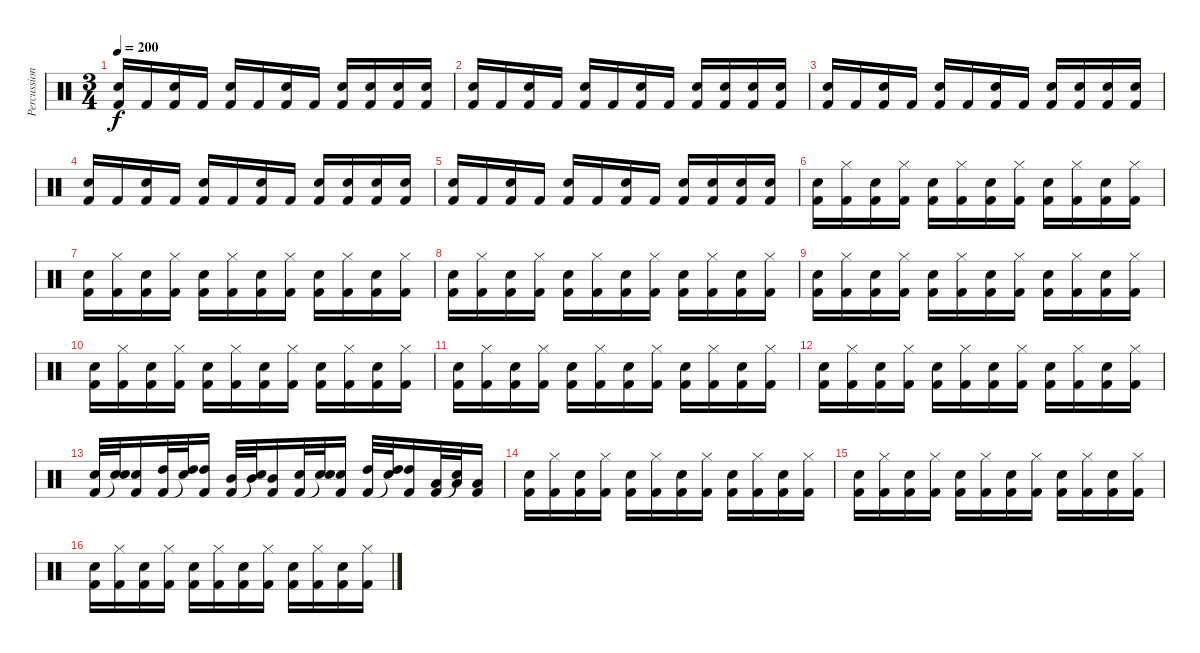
\track ("Percussion" "Percussion") {instrument percussion}
\staff {score}
\articulation defaults
\ts (3 4)
\tempo 200
\clef neutral
\ks c
("Snare (hit) 2" "Kick (hit) 2").16{dy f} "Kick (hit) 2".16 ("Snare (hit) 2" "Kick (hit) 2").16 "Kick (hit) 2".16 ("Snare (hit) 2" "Kick (hit) 2").16 "Kick (hit) 2".16 ("Snare (hit) 2" "Kick (hit) 2").16 "Kick (hit) 2".16 ("Snare (hit) 2" "Kick (hit) 2").16 ("Snare (hit) 2" "Kick (hit) 2").16 ("Snare (hit) 2" "Kick (hit) 2").16 ("Snare (hit) 2" "Kick (hit) 2").16 |
("Snare (hit) 2" "Kick (hit) 2").16 "Kick (hit) 2".16 ("Snare (hit) 2" "Kick (hit) 2").16 "Kick (hit) 2".16 ("Snare (hit) 2" "Kick (hit) 2").16 "Kick (hit) 2".16 ("Snare (hit) 2" "Kick (hit) 2").16 "Kick (hit) 2".16 ("Snare (hit) 2" "Kick (hit) 2").16 ("Snare (hit) 2" "Kick (hit) 2").16 ("Snare (hit) 2" "Kick (hit) 2").16 ("Snare (hit) 2" "Kick (hit) 2").16 |
("Snare (hit) 2" "Kick (hit) 2").16 "Kick (hit) 2".16 ("Snare (hit) 2" "Kick (hit) 2").16 "Kick (hit) 2".16 ("Snare (hit) 2" "Kick (hit) 2").16 "Kick (hit) 2".16 ("Snare (hit) 2" "Kick (hit) 2").16 "Kick (hit) 2".16 ("Snare (hit) 2" "Kick (hit) 2").16 ("Snare (hit) 2" "Kick (hit) 2").16 ("Snare (hit) 2" "Kick (hit) 2").16 ("Snare (hit) 2" "Kick (hit) 2").16 |
("Snare (hit) 2" "Kick (hit) 2").16 "Kick (hit) 2".16 ("Snare (hit) 2" "Kick (hit) 2").16 "Kick (hit) 2".16 ("Snare (hit) 2" "Kick (hit) 2").16 "Kick (hit) 2".16 ("Snare (hit) 2" "Kick (hit) 2").16 "Kick (hit) 2".16 ("Snare (hit) 2" "Kick (hit) 2").16 ("Snare (hit) 2" "Kick (hit) 2").16 ("Snare (hit) 2" "Kick (hit) 2").16 ("Snare (hit) 2" "Kick (hit) 2").16 |
("Snare (hit) 2" "Kick (hit) 2").16 "Kick (hit) 2".16 ("Snare (hit) 2" "Kick (hit) 2").16 "Kick (hit) 2".16 ("Snare (hit) 2" "Kick (hit) 2").16 "Kick (hit) 2".16 ("Snare (hit) 2" "Kick (hit) 2").16 "Kick (hit) 2".16 ("Snare (hit) 2" "Kick (hit) 2").16 ("Snare (hit) 2" "Kick (hit) 2").16 ("Snare (hit) 2" "Kick (hit) 2").16 ("Snare (hit) 2" "Kick (hit) 2").16 |
("Snare (hit) 2" "Kick (hit) 2").16 ("Hi-Hat (closed)" "Kick (hit) 2").16 ("Snare (hit) 2" "Kick (hit) 2").16 ("Hi-Hat (closed)" "Kick (hit) 2").16 ("Snare (hit) 2" "Kick (hit) 2").16 ("Hi-Hat (closed)" "Kick (hit) 2").16 ("Snare (hit) 2" "Kick (hit) 2").16 ("Hi-Hat (closed)" "Kick (hit) 2").16 ("Snare (hit) 2" "Kick (hit) 2").16 ("Hi-Hat (closed)" "Kick (hit) 2").16 ("Snare (hit) 2" "Kick (hit) 2").16 ("Hi-Hat (closed)" "Kick (hit) 2").16 |
("Snare (hit) 2" "Kick (hit) 2").16 ("Hi-Hat (closed)" "Kick (hit) 2").16 ("Snare (hit) 2" "Kick (hit) 2").16 ("Hi-Hat (closed)" "Kick (hit) 2").16 ("Snare (hit) 2" "Kick (hit) 2").16 ("Hi-Hat (closed)" "Kick (hit) 2").16 ("Snare (hit) 2" "Kick (hit) 2").16 ("Hi-Hat (closed)" "Kick (hit) 2").16 ("Snare (hit) 2" "Kick (hit) 2").16 ("Hi-Hat (closed)" "Kick (hit) 2").16 ("Snare (hit) 2" "Kick (hit) 2").16 ("Hi-Hat (closed)" "Kick (hit) 2").16 |
("Snare (hit) 2" "Kick (hit) 2").16 ("Hi-Hat (closed)" "Kick (hit) 2").16 ("Snare (hit) 2" "Kick (hit) 2").16 ("Hi-Hat (closed)" "Kick (hit) 2").16 ("Snare (hit) 2" "Kick (hit) 2").16 ("Hi-Hat (closed)" "Kick (hit) 2").16 ("Snare (hit) 2" "Kick (hit) 2").16 ("Hi-Hat (closed)" "Kick (hit) 2").16 ("Snare (hit) 2" "Kick (hit) 2").16 ("Hi-Hat (closed)" "Kick (hit) 2").16 ("Snare (hit) 2" "Kick (hit) 2").16 ("Hi-Hat (closed)" "Kick (hit) 2").16 |
("Snare (hit) 2" "Kick (hit) 2").16 ("Hi-Hat (closed)" "Kick (hit) 2").16 ("Snare (hit) 2" "Kick (hit) 2").16 ("Hi-Hat (closed)" "Kick (hit) 2").16 ("Snare (hit) 2" "Kick (hit) 2").16 ("Hi-Hat (closed)" "Kick (hit) 2").16 ("Snare (hit) 2" "Kick (hit) 2").16 ("Hi-Hat (closed)" "Kick (hit) 2").16 ("Snare (hit) 2" "Kick (hit) 2").16 ("Hi-Hat (closed)" "Kick (hit) 2").16 ("Snare (hit) 2" "Kick (hit) 2").16 ("Hi-Hat (closed)" "Kick (hit) 2").16 |
("Snare (hit) 2" "Kick (hit) 2").16 ("Hi-Hat (closed)" "Kick (hit) 2").16 ("Snare (hit) 2" "Kick (hit) 2").16 ("Hi-Hat (closed)" "Kick (hit) 2").16 ("Snare (hit) 2" "Kick (hit) 2").16 ("Hi-Hat (closed)" "Kick (hit) 2").16 ("Snare (hit) 2" "Kick (hit) 2").16 ("Hi-Hat (closed)" "Kick (hit) 2").16 ("Snare (hit) 2" "Kick (hit) 2").16 ("Hi-Hat (closed)" "Kick (hit) 2").16 ("Snare (hit) 2" "Kick (hit) 2").16 ("Hi-Hat (closed)" "Kick (hit) 2").16 |
("Snare (hit) 2" "Kick (hit) 2").16 ("Hi-Hat (closed)" "Kick (hit) 2").16 ("Snare (hit) 2" "Kick (hit) 2").16 ("Hi-Hat (closed)" "Kick (hit) 2").16 ("Snare (hit) 2" "Kick (hit) 2").16 ("Hi-Hat (closed)" "Kick (hit) 2").16 ("Snare (hit) 2" "Kick (hit) 2").16 ("Hi-Hat (closed)" "Kick (hit) 2").16 ("Snare (hit) 2" "Kick (hit) 2").16 ("Hi-Hat (closed)" "Kick (hit) 2").16 ("Snare (hit) 2" "Kick (hit) 2").16 ("Hi-Hat (closed)" "Kick (hit) 2").16 |
("Snare (hit) 2" "Kick (hit) 2").16 ("Hi-Hat (closed)" "Kick (hit) 2").16 ("Snare (hit) 2" "Kick (hit) 2").16 ("Hi-Hat (closed)" "Kick (hit) 2").16 ("Snare (hit) 2" "Kick (hit) 2").16 ("Hi-Hat (closed)" "Kick (hit) 2").16 ("Snare (hit) 2" "Kick (hit) 2").16 ("Hi-Hat (closed)" "Kick (hit) 2").16 ("Snare (hit) 2" "Kick (hit) 2").16 ("Hi-Hat (closed)" "Kick (hit) 2").16 ("Snare (hit) 2" "Kick (hit) 2").16 ("Hi-Hat (closed)" "Kick (hit) 2").16 |
("Snare (hit) 2" "Kick (hit) 2").32 ("Snare (hit) 2" "Snare (hit)"{t}).32 ("Snare (hit) 2" "Kick (hit) 2").16 ("High Tom (hit)" "Kick (hit) 2").32 ("High Tom (hit)" "Snare (hit)"{t}).32 ("High Tom (hit)" "Kick (hit) 2").16 ("Mid Tom (hit)" "Kick (hit) 2").32 ("Mid Tom (hit)" "Snare (hit)"{t}).32 ("Mid Tom (hit)" "Kick (hit) 2").16 ("Snare (hit) 2" "Kick (hit) 2").32 ("Snare (hit) 2" "Snare (hit)"{t}).32 ("Snare (hit) 2" "Kick (hit) 2").16 ("High Tom (hit)" "Kick (hit) 2").32 ("High Tom (hit)" "Snare (hit)"{t}).32 ("High Tom (hit)" "Kick (hit) 2").16 ("Low Tom (hit)" "Kick (hit) 2").32 ("Low Tom (hit)" "Snare (hit)"{t}).32 ("Low Tom (hit)" "Kick (hit) 2").16 |
("Snare (hit) 2" "Kick (hit) 2").16 ("Hi-Hat (closed)" "Kick (hit) 2").16 ("Snare (hit) 2" "Kick (hit) 2").16 ("Hi-Hat (closed)" "Kick (hit) 2").16 ("Snare (hit) 2" "Kick (hit) 2").16 ("Hi-Hat (closed)" "Kick (hit) 2").16 ("Snare (hit) 2" "Kick (hit) 2").16 ("Hi-Hat (closed)" "Kick (hit) 2").16 ("Snare (hit) 2" "Kick (hit) 2").16 ("Hi-Hat (closed)" "Kick (hit) 2").16 ("Snare (hit) 2" "Kick (hit) 2").16 ("Hi-Hat (closed)" "Kick (hit) 2").16 |
("Snare (hit) 2" "Kick (hit) 2").16 ("Hi-Hat (closed)" "Kick (hit) 2").16 ("Snare (hit) 2" "Kick (hit) 2").16 ("Hi-Hat (closed)" "Kick (hit) 2").16 ("Snare (hit) 2" "Kick (hit) 2").16 ("Hi-Hat (closed)" "Kick (hit) 2").16 ("Snare (hit) 2" "Kick (hit) 2").16 ("Hi-Hat (closed)" "Kick (hit) 2").16 ("Snare (hit) 2" "Kick (hit) 2").16 ("Hi-Hat (closed)" "Kick (hit) 2").16 ("Snare (hit) 2" "Kick (hit) 2").16 ("Hi-Hat (closed)" "Kick (hit) 2").16 |
("Snare (hit) 2" "Kick (hit) 2").16 ("Hi-Hat (closed)" "Kick (hit) 2").16 ("Snare (hit) 2" "Kick (hit) 2").16 ("Hi-Hat (closed)" "Kick (hit) 2").16 ("Snare (hit) 2" "Kick (hit) 2").16 ("Hi-Hat (closed)" "Kick (hit) 2").16 ("Snare (hit) 2" "Kick (hit) 2").16 ("Hi-Hat (closed)" "Kick (hit) 2").16 ("Snare (hit) 2" "Kick (hit) 2").16 ("Hi-Hat (closed)" "Kick (hit) 2").16 ("Snare (hit) 2" "Kick (hit) 2").16 ("Hi-Hat (closed)" "Kick (hit) 2").16
